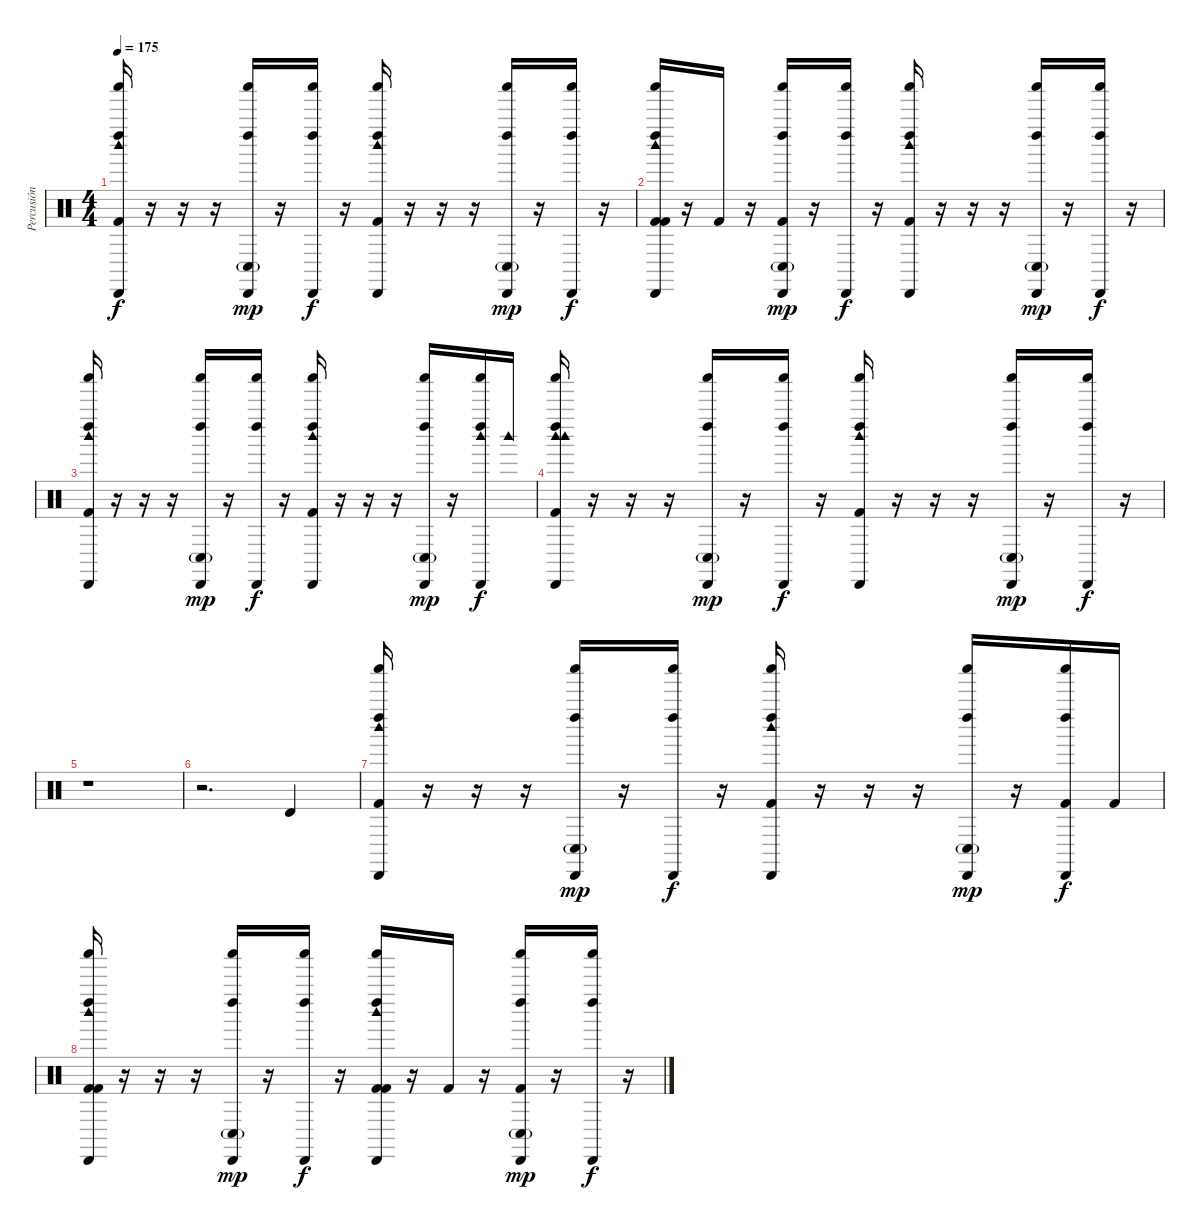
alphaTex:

\track ("Percusión" "Percusión") {instrument percussion}
\staff {score}
\articulation defaults
\ts (4 4)
\tempo 175
\clef neutral
\ks c
("Cabasa (hit)" "Shaker (hit)" "Kick (hit) 2" "Left Maraca (hit)" "Woodblock high (hit)").16{dy f} r.16 r.16 r.16 ("Cabasa (hit)" "Shaker (hit)" "Conga low (hit)"{g} "Left Maraca (hit)").16{dy mp} r.16 ("Cabasa (hit)" "Shaker (hit)" "Left Maraca (hit)").16{dy f} r.16 ("Cabasa (hit)" "Shaker (hit)" "Kick (hit) 2" "Left Maraca (hit)" "Woodblock high (hit)").16 r.16 r.16 r.16 ("Cabasa (hit)" "Shaker (hit)" "Conga low (hit)"{g} "Left Maraca (hit)").16{dy mp} r.16 ("Cabasa (hit)" "Shaker (hit)" "Left Maraca (hit)").16{dy f} r.16 |
("Kick (hit) 2" "Cabasa (hit)" "Shaker (hit)" "Kick (hit) 2" "Left Maraca (hit)" "Woodblock high (hit)").16 r.16 "Kick (hit) 2".16 r.16 ("Kick (hit) 2" "Cabasa (hit)" "Shaker (hit)" "Conga low (hit)"{g} "Left Maraca (hit)").16{dy mp} r.16 ("Cabasa (hit)" "Shaker (hit)" "Left Maraca (hit)").16{dy f} r.16 ("Cabasa (hit)" "Shaker (hit)" "Kick (hit) 2" "Left Maraca (hit)" "Woodblock high (hit)").16 r.16 r.16 r.16 ("Cabasa (hit)" "Shaker (hit)" "Conga low (hit)"{g} "Left Maraca (hit)").16{dy mp} r.16 ("Cabasa (hit)" "Shaker (hit)" "Left Maraca (hit)").16{dy f} r.16 |
("Cabasa (hit)" "Shaker (hit)" "Kick (hit) 2" "Left Maraca (hit)" "Woodblock high (hit)").16 r.16 r.16 r.16 ("Cabasa (hit)" "Shaker (hit)" "Conga low (hit)"{g} "Left Maraca (hit)").16{dy mp} r.16 ("Cabasa (hit)" "Shaker (hit)" "Left Maraca (hit)").16{dy f} r.16 ("Cabasa (hit)" "Shaker (hit)" "Kick (hit) 2" "Left Maraca (hit)" "Woodblock high (hit)").16 r.16 r.16 r.16 ("Cabasa (hit)" "Shaker (hit)" "Conga low (hit)"{g} "Left Maraca (hit)").16{dy mp} r.16 ("Woodblock high (hit)" "Cabasa (hit)" "Shaker (hit)" "Left Maraca (hit)").16{dy f} "Woodblock high (hit)".16 |
("Woodblock high (hit)" "Cabasa (hit)" "Shaker (hit)" "Kick (hit) 2" "Left Maraca (hit)" "Woodblock high (hit)").16 r.16 r.16 r.16 ("Cabasa (hit)" "Shaker (hit)" "Conga low (hit)"{g} "Left Maraca (hit)").16{dy mp} r.16 ("Cabasa (hit)" "Shaker (hit)" "Left Maraca (hit)").16{dy f} r.16 ("Cabasa (hit)" "Shaker (hit)" "Kick (hit) 2" "Left Maraca (hit)" "Woodblock high (hit)").16 r.16 r.16 r.16 ("Cabasa (hit)" "Shaker (hit)" "Conga low (hit)"{g} "Left Maraca (hit)").16{dy mp} r.16 ("Cabasa (hit)" "Shaker (hit)" "Left Maraca (hit)").16{dy f} r.16 |
r.1 |
r.2{d} "Timbale high (hit)".4 |
("Cabasa (hit)" "Shaker (hit)" "Kick (hit) 2" "Left Maraca (hit)" "Woodblock high (hit)").16 r.16 r.16 r.16 ("Cabasa (hit)" "Shaker (hit)" "Conga low (hit)"{g} "Left Maraca (hit)").16{dy mp} r.16 ("Cabasa (hit)" "Shaker (hit)" "Left Maraca (hit)").16{dy f} r.16 ("Cabasa (hit)" "Shaker (hit)" "Kick (hit) 2" "Left Maraca (hit)" "Woodblock high (hit)").16 r.16 r.16 r.16 ("Cabasa (hit)" "Shaker (hit)" "Conga low (hit)"{g} "Left Maraca (hit)").16{dy mp} r.16 ("Kick (hit) 2" "Cabasa (hit)" "Shaker (hit)" "Left Maraca (hit)").16{dy f} "Kick (hit) 2".16 |
("Kick (hit) 2" "Cabasa (hit)" "Shaker (hit)" "Kick (hit) 2" "Left Maraca (hit)" "Woodblock high (hit)").16 r.16 r.16 r.16 ("Cabasa (hit)" "Shaker (hit)" "Conga low (hit)"{g} "Left Maraca (hit)").16{dy mp} r.16 ("Cabasa (hit)" "Shaker (hit)" "Left Maraca (hit)").16{dy f} r.16 ("Kick (hit) 2" "Cabasa (hit)" "Shaker (hit)" "Kick (hit) 2" "Left Maraca (hit)" "Woodblock high (hit)").16 r.16 "Kick (hit) 2".16 r.16 ("Kick (hit) 2" "Cabasa (hit)" "Shaker (hit)" "Conga low (hit)"{g} "Left Maraca (hit)").16{dy mp} r.16 ("Cabasa (hit)" "Shaker (hit)" "Left Maraca (hit)").16{dy f} r.16
